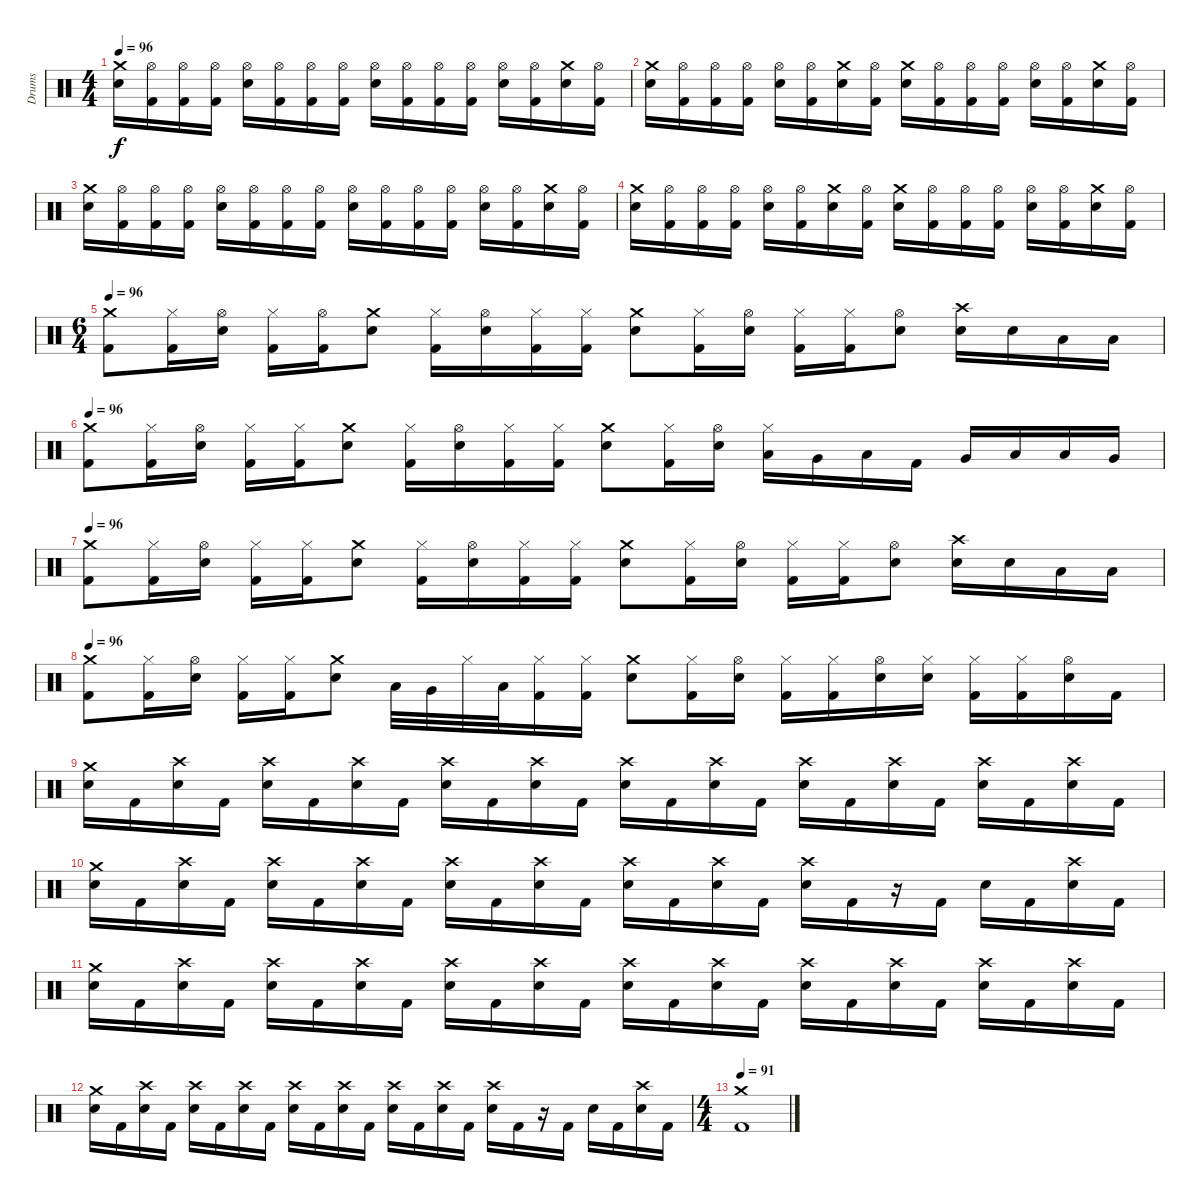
\track ("Drums" "Drums") {instrument percussion}
\staff {score}
\articulation defaults
\ts (4 4)
\tempo 96
\clef neutral
\ks c
("Crash medium (hit)" "Electric Snare (hit)").16{dy f} ("Hi-Hat (open)" "Kick (hit) 2").16 ("Hi-Hat (open)" "Kick (hit) 2").16 ("Hi-Hat (open)" "Kick (hit) 2").16 ("Hi-Hat (open)" "Electric Snare (hit)").16 ("Hi-Hat (open)" "Kick (hit) 2").16 ("Hi-Hat (open)" "Kick (hit) 2").16 ("Hi-Hat (open)" "Kick (hit) 2").16 ("Hi-Hat (open)" "Electric Snare (hit)").16 ("Hi-Hat (open)" "Kick (hit) 2").16 ("Hi-Hat (open)" "Kick (hit) 2").16 ("Hi-Hat (open)" "Kick (hit) 2").16 ("Hi-Hat (open)" "Electric Snare (hit)").16 ("Hi-Hat (open)" "Kick (hit) 2").16 ("Crash medium (hit)" "Electric Snare (hit)").16 ("Hi-Hat (open)" "Kick (hit) 2").16 |
("Crash medium (hit)" "Electric Snare (hit)").16 ("Hi-Hat (open)" "Kick (hit) 2").16 ("Hi-Hat (open)" "Kick (hit) 2").16 ("Hi-Hat (open)" "Kick (hit) 2").16 ("Hi-Hat (open)" "Electric Snare (hit)").16 ("Hi-Hat (open)" "Kick (hit) 2").16 ("Crash medium (hit)" "Electric Snare (hit)").16 ("Hi-Hat (open)" "Kick (hit) 2").16 ("Crash medium (hit)" "Electric Snare (hit)").16 ("Hi-Hat (open)" "Kick (hit) 2").16 ("Hi-Hat (open)" "Kick (hit) 2").16 ("Hi-Hat (open)" "Kick (hit) 2").16 ("Hi-Hat (open)" "Electric Snare (hit)").16 ("Hi-Hat (open)" "Kick (hit) 2").16 ("Crash medium (hit)" "Electric Snare (hit)").16 ("Hi-Hat (open)" "Kick (hit) 2").16 |
("Crash medium (hit)" "Electric Snare (hit)").16 ("Hi-Hat (open)" "Kick (hit) 2").16 ("Hi-Hat (open)" "Kick (hit) 2").16 ("Hi-Hat (open)" "Kick (hit) 2").16 ("Hi-Hat (open)" "Electric Snare (hit)").16 ("Hi-Hat (open)" "Kick (hit) 2").16 ("Hi-Hat (open)" "Kick (hit) 2").16 ("Hi-Hat (open)" "Kick (hit) 2").16 ("Hi-Hat (open)" "Electric Snare (hit)").16 ("Hi-Hat (open)" "Kick (hit) 2").16 ("Hi-Hat (open)" "Kick (hit) 2").16 ("Hi-Hat (open)" "Kick (hit) 2").16 ("Hi-Hat (open)" "Electric Snare (hit)").16 ("Hi-Hat (open)" "Kick (hit) 2").16 ("Crash medium (hit)" "Electric Snare (hit)").16 ("Hi-Hat (open)" "Kick (hit) 2").16 |
("Crash medium (hit)" "Electric Snare (hit)").16 ("Hi-Hat (open)" "Kick (hit) 2").16 ("Hi-Hat (open)" "Kick (hit) 2").16 ("Hi-Hat (open)" "Kick (hit) 2").16 ("Hi-Hat (open)" "Electric Snare (hit)").16 ("Hi-Hat (open)" "Kick (hit) 2").16 ("Crash medium (hit)" "Electric Snare (hit)").16 ("Hi-Hat (open)" "Kick (hit) 2").16 ("Crash medium (hit)" "Electric Snare (hit)").16 ("Hi-Hat (open)" "Kick (hit) 2").16 ("Hi-Hat (open)" "Kick (hit) 2").16 ("Hi-Hat (open)" "Kick (hit) 2").16 ("Hi-Hat (open)" "Electric Snare (hit)").16 ("Hi-Hat (open)" "Kick (hit) 2").16 ("Crash medium (hit)" "Electric Snare (hit)").16 ("Hi-Hat (open)" "Kick (hit) 2").16 |
\ts (6 4)
\tempo 96
("Crash medium (hit)" "Kick (hit) 2").8 ("Hi-Hat (closed)" "Kick (hit) 2").16 ("Hi-Hat (open)" "Electric Snare (hit)").16 ("Hi-Hat (closed)" "Kick (hit) 2").16 ("Hi-Hat (open)" "Kick (hit) 2").16 ("Crash medium (hit)" "Electric Snare (hit)").8 ("Hi-Hat (closed)" "Kick (hit) 2").16 ("Hi-Hat (open)" "Electric Snare (hit)").16 ("Hi-Hat (closed)" "Kick (hit) 2").16 ("Hi-Hat (closed)" "Kick (hit) 2").16 ("Crash medium (hit)" "Electric Snare (hit)").8 ("Hi-Hat (closed)" "Kick (hit) 2").16 ("Hi-Hat (open)" "Electric Snare (hit)").16 ("Hi-Hat (closed)" "Kick (hit) 2").16 ("Hi-Hat (closed)" "Kick (hit) 2").16 ("Hi-Hat (open)" "Electric Snare (hit)").8 ("Crash high (hit)" "Electric Snare (hit)").16 "Electric Snare (hit)".16 "Low Tom (hit)".16 "Low Tom (hit)".16 |
\tempo 96
("Crash medium (hit)" "Kick (hit) 2").8 ("Hi-Hat (closed)" "Kick (hit) 2").16 ("Hi-Hat (open)" "Electric Snare (hit)").16 ("Hi-Hat (closed)" "Kick (hit) 2").16 ("Hi-Hat (closed)" "Kick (hit) 2").16 ("Crash medium (hit)" "Electric Snare (hit)").8 ("Hi-Hat (closed)" "Kick (hit) 2").16 ("Hi-Hat (open)" "Electric Snare (hit)").16 ("Hi-Hat (closed)" "Kick (hit) 2").16 ("Hi-Hat (closed)" "Kick (hit) 2").16 ("Crash medium (hit)" "Electric Snare (hit)").8 ("Hi-Hat (closed)" "Kick (hit) 2").16 ("Hi-Hat (open)" "Electric Snare (hit)").16 ("Hi-Hat (closed)" "Low Tom (hit)").16 "Very Low Tom (hit)".16 "Low Floor Tom (hit)".16 "Kick (hit) 2".16 "Very Low Tom (hit)".16 "Low Tom (hit)".16 "Low Tom (hit)".16 "Very Low Tom (hit)".16 |
\tempo 96
("Crash medium (hit)" "Kick (hit) 2").8 ("Hi-Hat (closed)" "Kick (hit) 2").16 ("Hi-Hat (open)" "Electric Snare (hit)").16 ("Hi-Hat (closed)" "Kick (hit) 2").16 ("Hi-Hat (closed)" "Kick (hit) 2").16 ("Crash medium (hit)" "Electric Snare (hit)").8 ("Hi-Hat (closed)" "Kick (hit) 2").16 ("Hi-Hat (open)" "Electric Snare (hit)").16 ("Hi-Hat (closed)" "Kick (hit) 2").16 ("Hi-Hat (closed)" "Kick (hit) 2").16 ("Crash medium (hit)" "Electric Snare (hit)").8 ("Hi-Hat (closed)" "Kick (hit) 2").16 ("Hi-Hat (open)" "Electric Snare (hit)").16 ("Hi-Hat (closed)" "Kick (hit) 2").16 ("Hi-Hat (closed)" "Kick (hit) 2").16 ("Hi-Hat (open)" "Electric Snare (hit)").8 ("Crash high (hit)" "Electric Snare (hit)").16 "Electric Snare (hit)".16 "Low Tom (hit)".16 "Low Tom (hit)".16 |
\tempo 96
("Crash medium (hit)" "Kick (hit) 2").8 ("Hi-Hat (closed)" "Kick (hit) 2").16 ("Hi-Hat (open)" "Electric Snare (hit)").16 ("Hi-Hat (closed)" "Kick (hit) 2").16 ("Hi-Hat (closed)" "Kick (hit) 2").16 ("Crash medium (hit)" "Electric Snare (hit)").8 "Low Tom (hit)".32 "Very Low Tom (hit)".32 "Hi-Hat (closed)".32 "Low Floor Tom (hit)".32 ("Hi-Hat (closed)" "Kick (hit) 2").16 ("Hi-Hat (closed)" "Kick (hit) 2").16 ("Crash medium (hit)" "Electric Snare (hit)").8 ("Hi-Hat (closed)" "Kick (hit) 2").16 ("Hi-Hat (open)" "Electric Snare (hit)").16 ("Hi-Hat (closed)" "Kick (hit) 2").16 ("Hi-Hat (closed)" "Kick (hit) 2").16 ("Hi-Hat (open)" "Electric Snare (hit)").16 ("Hi-Hat (closed)" "Electric Snare (hit)").16 ("Hi-Hat (closed)" "Kick (hit) 2").16 ("Hi-Hat (closed)" "Kick (hit) 2").16 ("Hi-Hat (open)" "Electric Snare (hit)").16 "Kick (hit) 2".16 |
("Crash medium (hit)" "Electric Snare (hit)").16 "Kick (hit) 2".16 ("Crash high (hit)" "Electric Snare (hit)").16 "Kick (hit) 2".16 ("Crash high (hit)" "Electric Snare (hit)").16 "Kick (hit) 2".16 ("Crash high (hit)" "Electric Snare (hit)").16 "Kick (hit) 2".16 ("Crash high (hit)" "Electric Snare (hit)").16 "Kick (hit) 2".16 ("Crash high (hit)" "Electric Snare (hit)").16 "Kick (hit) 2".16 ("Crash high (hit)" "Electric Snare (hit)").16 "Kick (hit) 2".16 ("Crash high (hit)" "Electric Snare (hit)").16 "Kick (hit) 2".16 ("Crash high (hit)" "Electric Snare (hit)").16 "Kick (hit) 2".16 ("Crash high (hit)" "Electric Snare (hit)").16 "Kick (hit) 2".16 ("Crash high (hit)" "Electric Snare (hit)").16 "Kick (hit) 2".16 ("Crash high (hit)" "Electric Snare (hit)").16 "Kick (hit) 2".16 |
("Crash medium (hit)" "Electric Snare (hit)").16 "Kick (hit) 2".16 ("Crash high (hit)" "Electric Snare (hit)").16 "Kick (hit) 2".16 ("Crash high (hit)" "Electric Snare (hit)").16 "Kick (hit) 2".16 ("Crash high (hit)" "Electric Snare (hit)").16 "Kick (hit) 2".16 ("Crash high (hit)" "Electric Snare (hit)").16 "Kick (hit) 2".16 ("Crash high (hit)" "Electric Snare (hit)").16 "Kick (hit) 2".16 ("Crash high (hit)" "Electric Snare (hit)").16 "Kick (hit) 2".16 ("Crash high (hit)" "Electric Snare (hit)").16 "Kick (hit) 2".16 ("Crash high (hit)" "Electric Snare (hit)").16 "Kick (hit) 2".16 r.16 "Kick (hit) 2".16 "Electric Snare (hit)".16 "Kick (hit) 2".16 ("Crash high (hit)" "Electric Snare (hit)").16 "Kick (hit) 2".16 |
("Crash medium (hit)" "Electric Snare (hit)").16 "Kick (hit) 2".16 ("Crash high (hit)" "Electric Snare (hit)").16 "Kick (hit) 2".16 ("Crash high (hit)" "Electric Snare (hit)").16 "Kick (hit) 2".16 ("Crash high (hit)" "Electric Snare (hit)").16 "Kick (hit) 2".16 ("Crash high (hit)" "Electric Snare (hit)").16 "Kick (hit) 2".16 ("Crash high (hit)" "Electric Snare (hit)").16 "Kick (hit) 2".16 ("Crash high (hit)" "Electric Snare (hit)").16 "Kick (hit) 2".16 ("Crash high (hit)" "Electric Snare (hit)").16 "Kick (hit) 2".16 ("Crash high (hit)" "Electric Snare (hit)").16 "Kick (hit) 2".16 ("Crash high (hit)" "Electric Snare (hit)").16 "Kick (hit) 2".16 ("Crash high (hit)" "Electric Snare (hit)").16 "Kick (hit) 2".16 ("Crash high (hit)" "Electric Snare (hit)").16 "Kick (hit) 2".16 |
("Crash medium (hit)" "Electric Snare (hit)").16 "Kick (hit) 2".16 ("Crash high (hit)" "Electric Snare (hit)").16 "Kick (hit) 2".16 ("Crash high (hit)" "Electric Snare (hit)").16 "Kick (hit) 2".16 ("Crash high (hit)" "Electric Snare (hit)").16 "Kick (hit) 2".16 ("Crash high (hit)" "Electric Snare (hit)").16 "Kick (hit) 2".16 ("Crash high (hit)" "Electric Snare (hit)").16 "Kick (hit) 2".16 ("Crash high (hit)" "Electric Snare (hit)").16 "Kick (hit) 2".16 ("Crash high (hit)" "Electric Snare (hit)").16 "Kick (hit) 2".16 ("Crash high (hit)" "Electric Snare (hit)").16 "Kick (hit) 2".16 r.16 "Kick (hit) 2".16 "Electric Snare (hit)".16 "Kick (hit) 2".16 ("Crash high (hit)" "Electric Snare (hit)").16 "Kick (hit) 2".16 |
\ts (4 4)
\tempo 91
("Crash medium (hit)" "Kick (hit) 2").1
